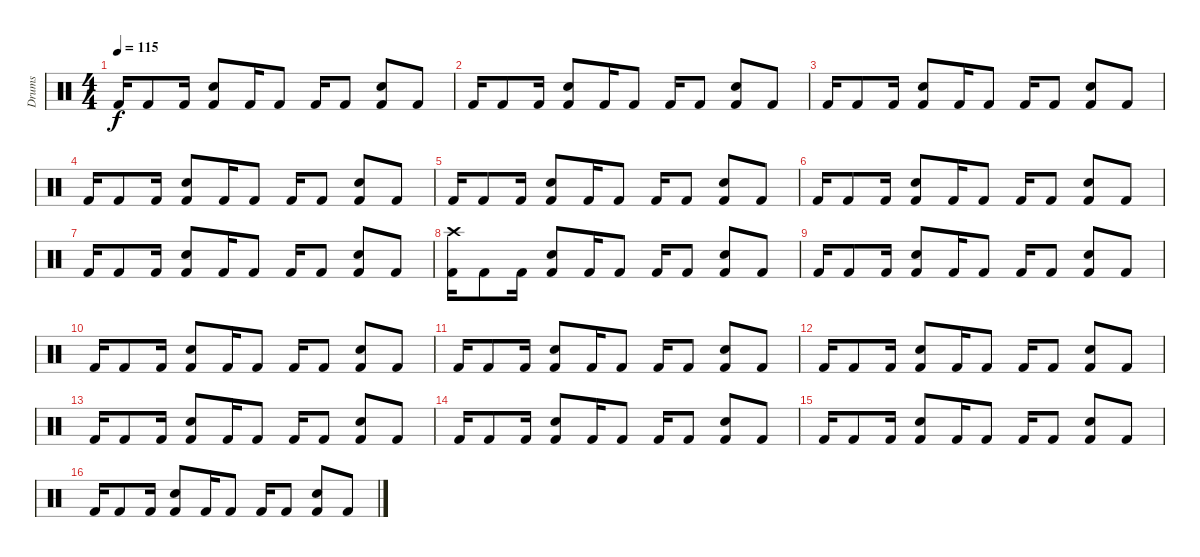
\track ("Drums" "Drums") {instrument percussion}
\staff {score}
\articulation defaults
\ts (4 4)
\tempo 115
\clef neutral
\ks c "Kick (hit) 2".16{dy f} "Kick (hit) 2".8 "Kick (hit) 2".16
("Snare (hit) 2" "Kick (hit) 2").8 "Kick (hit) 2".16 "Kick (hit) 2".8 "Kick (hit) 2".16 "Kick (hit) 2".8 ("Snare (hit) 2" "Kick (hit) 2").8 "Kick (hit) 2".8 |
"Kick (hit) 2".16 "Kick (hit) 2".8 "Kick (hit) 2".16 ("Snare (hit) 2" "Kick (hit) 2").8 "Kick (hit) 2".16 "Kick (hit) 2".8 "Kick (hit) 2".16 "Kick (hit) 2".8 ("Snare (hit) 2" "Kick (hit) 2").8 "Kick (hit) 2".8 |
"Kick (hit) 2".16 "Kick (hit) 2".8 "Kick (hit) 2".16 ("Snare (hit) 2" "Kick (hit) 2").8 "Kick (hit) 2".16 "Kick (hit) 2".8 "Kick (hit) 2".16 "Kick (hit) 2".8 ("Snare (hit) 2" "Kick (hit) 2").8 "Kick (hit) 2".8 |
"Kick (hit) 2".16 "Kick (hit) 2".8 "Kick (hit) 2".16 ("Snare (hit) 2" "Kick (hit) 2").8 "Kick (hit) 2".16 "Kick (hit) 2".8 "Kick (hit) 2".16 "Kick (hit) 2".8 ("Snare (hit) 2" "Kick (hit) 2").8 "Kick (hit) 2".8 |
"Kick (hit) 2".16 "Kick (hit) 2".8 "Kick (hit) 2".16 ("Snare (hit) 2" "Kick (hit) 2").8 "Kick (hit) 2".16 "Kick (hit) 2".8 "Kick (hit) 2".16 "Kick (hit) 2".8 ("Snare (hit) 2" "Kick (hit) 2").8 "Kick (hit) 2".8 |
"Kick (hit) 2".16 "Kick (hit) 2".8 "Kick (hit) 2".16 ("Snare (hit) 2" "Kick (hit) 2").8 "Kick (hit) 2".16 "Kick (hit) 2".8 "Kick (hit) 2".16 "Kick (hit) 2".8 ("Snare (hit) 2" "Kick (hit) 2").8 "Kick (hit) 2".8 |
"Kick (hit) 2".16 "Kick (hit) 2".8 "Kick (hit) 2".16 ("Snare (hit) 2" "Kick (hit) 2").8 "Kick (hit) 2".16 "Kick (hit) 2".8 "Kick (hit) 2".16 "Kick (hit) 2".8 ("Snare (hit) 2" "Kick (hit) 2").8 "Kick (hit) 2".8 |
("Crash high (hit)" "Kick (hit) 2").16 "Kick (hit) 2".8 "Kick (hit) 2".16 ("Snare (hit) 2" "Kick (hit) 2").8 "Kick (hit) 2".16 "Kick (hit) 2".8 "Kick (hit) 2".16 "Kick (hit) 2".8 ("Snare (hit) 2" "Kick (hit) 2").8 "Kick (hit) 2".8 |
"Kick (hit) 2".16 "Kick (hit) 2".8 "Kick (hit) 2".16 ("Snare (hit) 2" "Kick (hit) 2").8 "Kick (hit) 2".16 "Kick (hit) 2".8 "Kick (hit) 2".16 "Kick (hit) 2".8 ("Snare (hit) 2" "Kick (hit) 2").8 "Kick (hit) 2".8 |
"Kick (hit) 2".16 "Kick (hit) 2".8 "Kick (hit) 2".16 ("Snare (hit) 2" "Kick (hit) 2").8 "Kick (hit) 2".16 "Kick (hit) 2".8 "Kick (hit) 2".16 "Kick (hit) 2".8 ("Snare (hit) 2" "Kick (hit) 2").8 "Kick (hit) 2".8 |
"Kick (hit) 2".16 "Kick (hit) 2".8 "Kick (hit) 2".16 ("Snare (hit) 2" "Kick (hit) 2").8 "Kick (hit) 2".16 "Kick (hit) 2".8 "Kick (hit) 2".16 "Kick (hit) 2".8 ("Snare (hit) 2" "Kick (hit) 2").8 "Kick (hit) 2".8 |
"Kick (hit) 2".16 "Kick (hit) 2".8 "Kick (hit) 2".16 ("Snare (hit) 2" "Kick (hit) 2").8 "Kick (hit) 2".16 "Kick (hit) 2".8 "Kick (hit) 2".16 "Kick (hit) 2".8 ("Snare (hit) 2" "Kick (hit) 2").8 "Kick (hit) 2".8 |
"Kick (hit) 2".16 "Kick (hit) 2".8 "Kick (hit) 2".16 ("Snare (hit) 2" "Kick (hit) 2").8 "Kick (hit) 2".16 "Kick (hit) 2".8 "Kick (hit) 2".16 "Kick (hit) 2".8 ("Snare (hit) 2" "Kick (hit) 2").8 "Kick (hit) 2".8 |
"Kick (hit) 2".16 "Kick (hit) 2".8 "Kick (hit) 2".16 ("Snare (hit) 2" "Kick (hit) 2").8 "Kick (hit) 2".16 "Kick (hit) 2".8 "Kick (hit) 2".16 "Kick (hit) 2".8 ("Snare (hit) 2" "Kick (hit) 2").8 "Kick (hit) 2".8 |
"Kick (hit) 2".16 "Kick (hit) 2".8 "Kick (hit) 2".16 ("Snare (hit) 2" "Kick (hit) 2").8 "Kick (hit) 2".16 "Kick (hit) 2".8 "Kick (hit) 2".16 "Kick (hit) 2".8 ("Snare (hit) 2" "Kick (hit) 2").8 "Kick (hit) 2".8 |
"Kick (hit) 2".16 "Kick (hit) 2".8 "Kick (hit) 2".16 ("Snare (hit) 2" "Kick (hit) 2").8 "Kick (hit) 2".16 "Kick (hit) 2".8 "Kick (hit) 2".16 "Kick (hit) 2".8 ("Snare (hit) 2" "Kick (hit) 2").8 "Kick (hit) 2".8
